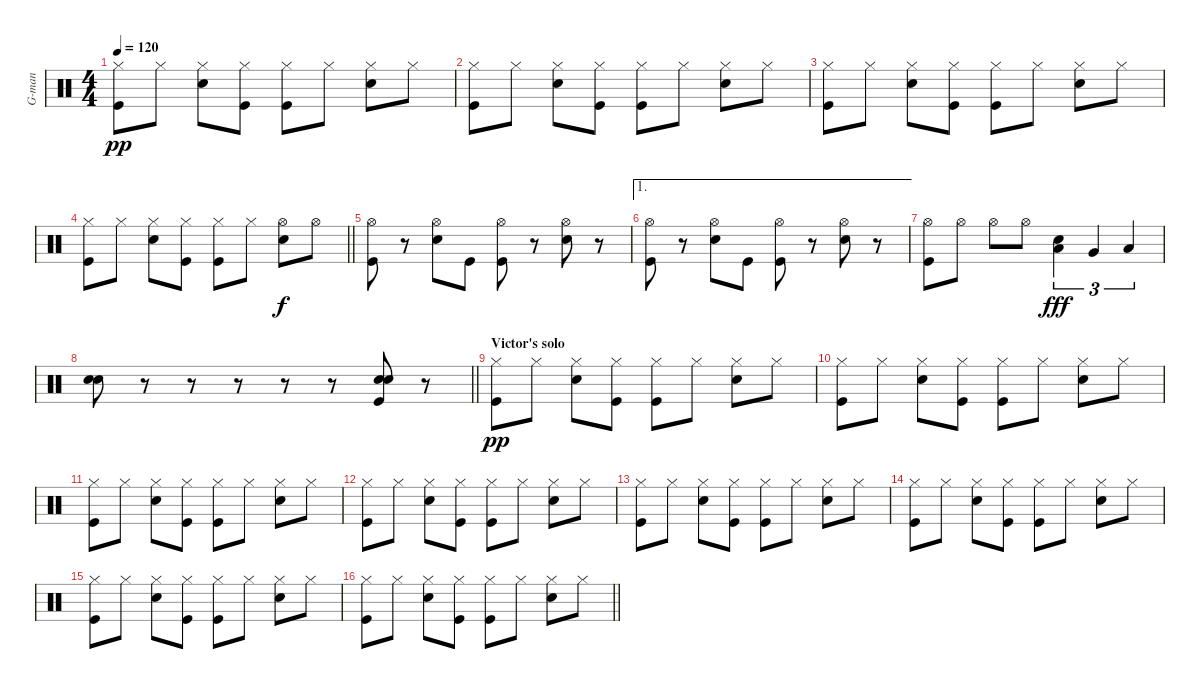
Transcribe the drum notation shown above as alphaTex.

\track ("G-man" "G-man") {instrument percussion}
\staff {score}
\articulation defaults
\ts (4 4)
\tempo 120
\clef neutral
\ks c
("Hi-Hat (closed)" "Kick (hit)").8{dy pp} "Hi-Hat (closed)".8 ("Hi-Hat (closed)" "Snare (hit) 2").8 ("Hi-Hat (closed)" "Kick (hit)").8 ("Hi-Hat (closed)" "Kick (hit)").8 "Hi-Hat (closed)".8 ("Hi-Hat (closed)" "Snare (hit) 2").8 "Hi-Hat (closed)".8 |
("Hi-Hat (closed)" "Kick (hit)").8 "Hi-Hat (closed)".8 ("Hi-Hat (closed)" "Snare (hit) 2").8 ("Hi-Hat (closed)" "Kick (hit)").8 ("Hi-Hat (closed)" "Kick (hit)").8 "Hi-Hat (closed)".8 ("Hi-Hat (closed)" "Snare (hit) 2").8 "Hi-Hat (closed)".8 |
("Hi-Hat (closed)" "Kick (hit)").8 "Hi-Hat (closed)".8 ("Hi-Hat (closed)" "Snare (hit) 2").8 ("Hi-Hat (closed)" "Kick (hit)").8 ("Hi-Hat (closed)" "Kick (hit)").8 "Hi-Hat (closed)".8 ("Hi-Hat (closed)" "Snare (hit) 2").8 "Hi-Hat (closed)".8 |
\barLineRight lightlight
("Hi-Hat (closed)" "Kick (hit)").8 "Hi-Hat (closed)".8 ("Hi-Hat (closed)" "Snare (hit) 2").8 ("Hi-Hat (closed)" "Kick (hit)").8 ("Hi-Hat (closed)" "Kick (hit)").8 "Hi-Hat (closed)".8 ("Hi-Hat (open)" "Snare (hit) 2").8{dy f} "Hi-Hat (open)".8 |
("Hi-Hat (open)" "Kick (hit)").8 r.8 ("Hi-Hat (open)" "Snare (hit) 2").8 "Kick (hit)".8 ("Hi-Hat (open)" "Kick (hit)").8 r.8 ("Hi-Hat (open)" "Snare (hit) 2").8 r.8 |
\ae 1
("Hi-Hat (open)" "Kick (hit)").8 r.8 ("Hi-Hat (open)" "Snare (hit) 2").8 "Kick (hit)".8 ("Hi-Hat (open)" "Kick (hit)").8 r.8 ("Hi-Hat (open)" "Snare (hit) 2").8 r.8 |
("Hi-Hat (open)" "Kick (hit)").8 "Hi-Hat (open)".8 "Hi-Hat (open)".8 "Hi-Hat (open)".8 ("Low Tom (hit)" "Snare (hit) 2").4{tu (3 2) dy fff} "Very Low Tom (hit)".4{tu (3 2)} "Low Floor Tom (hit)".4{tu (3 2)} |
\barLineRight lightlight
("Snare (hit) 2" "Electric Snare (hit)").8 r.8 r.8 r.8 r.8 r.8 ("Snare (hit) 2" "Electric Snare (hit)" "Kick (hit)").8 r.8 |
\section ("" "Victor's solo")
("Hi-Hat (closed)" "Kick (hit)").8{dy pp} "Hi-Hat (closed)".8 ("Hi-Hat (closed)" "Snare (hit) 2").8 ("Hi-Hat (closed)" "Kick (hit)").8 ("Hi-Hat (closed)" "Kick (hit)").8 "Hi-Hat (closed)".8 ("Hi-Hat (closed)" "Snare (hit) 2").8 "Hi-Hat (closed)".8 |
("Hi-Hat (closed)" "Kick (hit)").8 "Hi-Hat (closed)".8 ("Hi-Hat (closed)" "Snare (hit) 2").8 ("Hi-Hat (closed)" "Kick (hit)").8 ("Hi-Hat (closed)" "Kick (hit)").8 "Hi-Hat (closed)".8 ("Hi-Hat (closed)" "Snare (hit) 2").8 "Hi-Hat (closed)".8 |
("Hi-Hat (closed)" "Kick (hit)").8 "Hi-Hat (closed)".8 ("Hi-Hat (closed)" "Snare (hit) 2").8 ("Hi-Hat (closed)" "Kick (hit)").8 ("Hi-Hat (closed)" "Kick (hit)").8 "Hi-Hat (closed)".8 ("Hi-Hat (closed)" "Snare (hit) 2").8 "Hi-Hat (closed)".8 |
("Hi-Hat (closed)" "Kick (hit)").8 "Hi-Hat (closed)".8 ("Hi-Hat (closed)" "Snare (hit) 2").8 ("Hi-Hat (closed)" "Kick (hit)").8 ("Hi-Hat (closed)" "Kick (hit)").8 "Hi-Hat (closed)".8 ("Hi-Hat (closed)" "Snare (hit) 2").8 "Hi-Hat (closed)".8 |
("Hi-Hat (closed)" "Kick (hit)").8 "Hi-Hat (closed)".8 ("Hi-Hat (closed)" "Snare (hit) 2").8 ("Hi-Hat (closed)" "Kick (hit)").8 ("Hi-Hat (closed)" "Kick (hit)").8 "Hi-Hat (closed)".8 ("Hi-Hat (closed)" "Snare (hit) 2").8 "Hi-Hat (closed)".8 |
("Hi-Hat (closed)" "Kick (hit)").8 "Hi-Hat (closed)".8 ("Hi-Hat (closed)" "Snare (hit) 2").8 ("Hi-Hat (closed)" "Kick (hit)").8 ("Hi-Hat (closed)" "Kick (hit)").8 "Hi-Hat (closed)".8 ("Hi-Hat (closed)" "Snare (hit) 2").8 "Hi-Hat (closed)".8 |
("Hi-Hat (closed)" "Kick (hit)").8 "Hi-Hat (closed)".8 ("Hi-Hat (closed)" "Snare (hit) 2").8 ("Hi-Hat (closed)" "Kick (hit)").8 ("Hi-Hat (closed)" "Kick (hit)").8 "Hi-Hat (closed)".8 ("Hi-Hat (closed)" "Snare (hit) 2").8 "Hi-Hat (closed)".8 |
\barLineRight lightlight
("Hi-Hat (closed)" "Kick (hit)").8 "Hi-Hat (closed)".8 ("Hi-Hat (closed)" "Snare (hit) 2").8 ("Hi-Hat (closed)" "Kick (hit)").8 ("Hi-Hat (closed)" "Kick (hit)").8 "Hi-Hat (closed)".8 ("Hi-Hat (closed)" "Snare (hit) 2").8 "Hi-Hat (closed)".8
